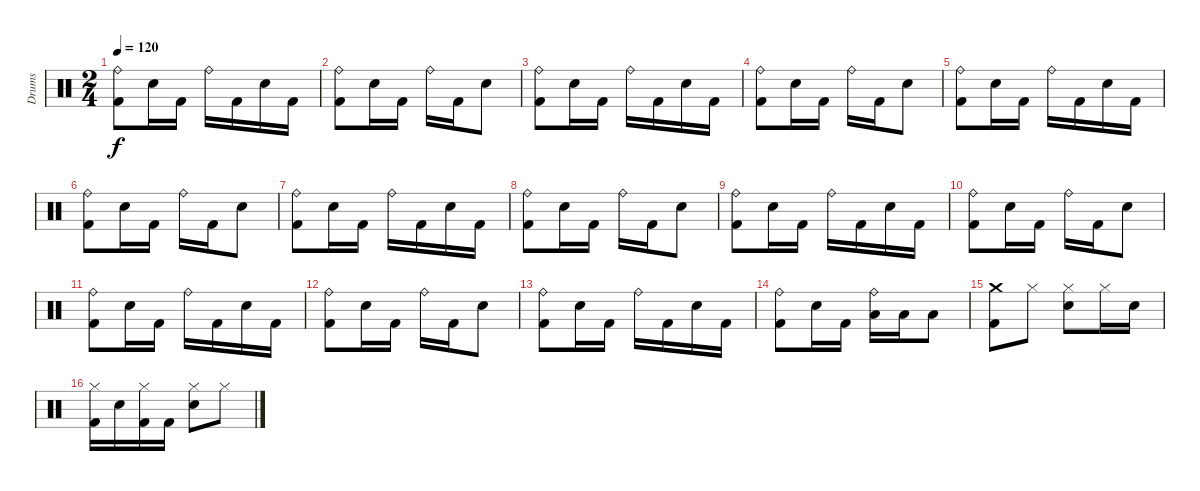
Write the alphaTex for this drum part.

\track ("Drums" "Drums") {instrument percussion}
\staff {score}
\articulation defaults
\ts (2 4)
\tempo 120
\clef neutral
\ks aminor
("Kick (hit) 2" "Ride (bell)").8{dy f} "Electric Snare (hit)".16 "Kick (hit) 2".16 "Ride (bell)".16 "Kick (hit) 2".16 "Electric Snare (hit)".16 "Kick (hit) 2".16 |
("Kick (hit) 2" "Ride (bell)").8 "Electric Snare (hit)".16 "Kick (hit) 2".16 "Ride (bell)".16 "Kick (hit) 2".16 "Electric Snare (hit)".8 |
("Kick (hit) 2" "Ride (bell)").8 "Electric Snare (hit)".16 "Kick (hit) 2".16 "Ride (bell)".16 "Kick (hit) 2".16 "Electric Snare (hit)".16 "Kick (hit) 2".16 |
("Kick (hit) 2" "Ride (bell)").8 "Electric Snare (hit)".16 "Kick (hit) 2".16 "Ride (bell)".16 "Kick (hit) 2".16 "Electric Snare (hit)".8 |
("Kick (hit) 2" "Ride (bell)").8 "Electric Snare (hit)".16 "Kick (hit) 2".16 "Ride (bell)".16 "Kick (hit) 2".16 "Electric Snare (hit)".16 "Kick (hit) 2".16 |
("Kick (hit) 2" "Ride (bell)").8 "Electric Snare (hit)".16 "Kick (hit) 2".16 "Ride (bell)".16 "Kick (hit) 2".16 "Electric Snare (hit)".8 |
("Kick (hit) 2" "Ride (bell)").8 "Electric Snare (hit)".16 "Kick (hit) 2".16 "Ride (bell)".16 "Kick (hit) 2".16 "Electric Snare (hit)".16 "Kick (hit) 2".16 |
("Kick (hit) 2" "Ride (bell)").8 "Electric Snare (hit)".16 "Kick (hit) 2".16 "Ride (bell)".16 "Kick (hit) 2".16 "Electric Snare (hit)".8 |
("Kick (hit) 2" "Ride (bell)").8 "Electric Snare (hit)".16 "Kick (hit) 2".16 "Ride (bell)".16 "Kick (hit) 2".16 "Electric Snare (hit)".16 "Kick (hit) 2".16 |
("Kick (hit) 2" "Ride (bell)").8 "Electric Snare (hit)".16 "Kick (hit) 2".16 "Ride (bell)".16 "Kick (hit) 2".16 "Electric Snare (hit)".8 |
("Kick (hit) 2" "Ride (bell)").8 "Electric Snare (hit)".16 "Kick (hit) 2".16 "Ride (bell)".16 "Kick (hit) 2".16 "Electric Snare (hit)".16 "Kick (hit) 2".16 |
("Kick (hit) 2" "Ride (bell)").8 "Electric Snare (hit)".16 "Kick (hit) 2".16 "Ride (bell)".16 "Kick (hit) 2".16 "Electric Snare (hit)".8 |
("Kick (hit) 2" "Ride (bell)").8 "Electric Snare (hit)".16 "Kick (hit) 2".16 "Ride (bell)".16 "Kick (hit) 2".16 "Electric Snare (hit)".16 "Kick (hit) 2".16 |
("Kick (hit) 2" "Ride (bell)").8 "Electric Snare (hit)".16 "Kick (hit) 2".16 ("Low Tom (hit)" "Ride (bell)").16 "Low Tom (hit)".16 "Low Tom (hit)".8 |
("Crash medium (hit)" "Kick (hit) 2").8 "Hi-Hat (closed)".8 ("Hi-Hat (closed)" "Electric Snare (hit)").8 "Hi-Hat (closed)".16 "Electric Snare (hit)".16 |
("Kick (hit) 2" "Hi-Hat (closed)").16 "Electric Snare (hit)".16 ("Kick (hit) 2" "Hi-Hat (closed)").16 "Kick (hit) 2".16 ("Electric Snare (hit)" "Hi-Hat (closed)").8 "Hi-Hat (closed)".8
